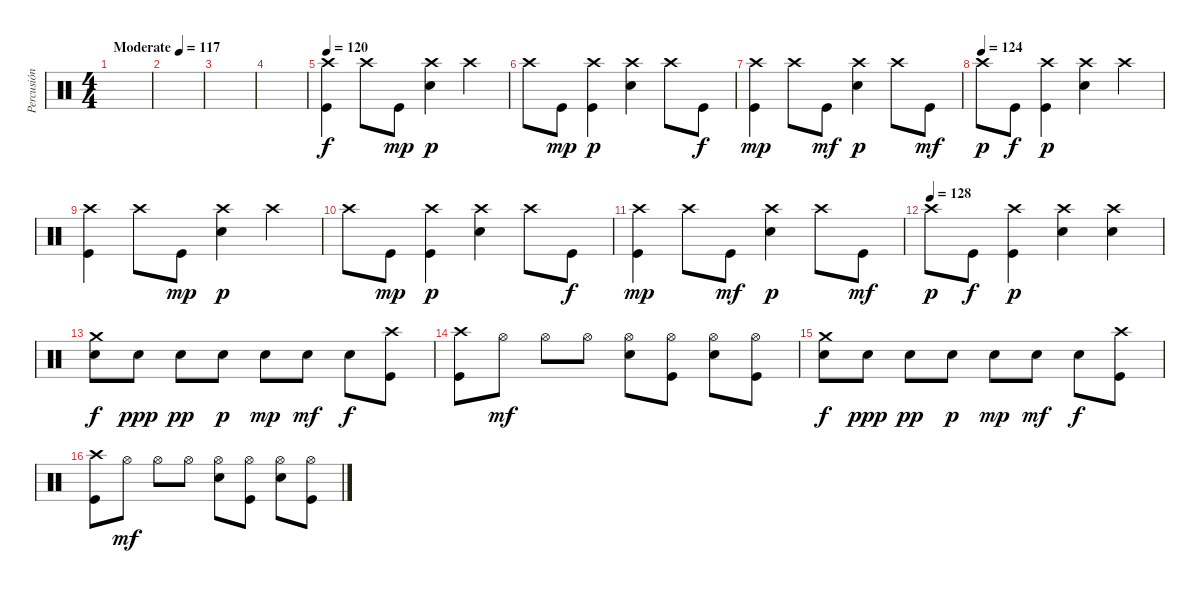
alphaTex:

\track ("Percusión" "Percusión") {instrument percussion}
\staff {score}
\articulation defaults
\ts (4 4)
\tempo (117 "Moderate")
\clef neutral
\ks c
|
|
|
|
\tempo 120
("Kick (hit)" "Crash high (hit)").4 "Crash high (hit)".8 "Kick (hit)".8{dy mp} ("Snare (hit) 2" "Crash high (hit)").4{dy p} "Crash high (hit)".4 |
"Crash high (hit)".8 "Kick (hit)".8{dy mp} ("Kick (hit)" "Crash high (hit)").4{dy p} ("Snare (hit) 2" "Crash high (hit)").4 "Crash high (hit)".8 "Kick (hit)".8{dy f} |
("Kick (hit)" "Crash high (hit)").4{dy mp} "Crash high (hit)".8 "Kick (hit)".8{dy mf} ("Snare (hit) 2" "Crash high (hit)").4{dy p} "Crash high (hit)".8 "Kick (hit)".8{dy mf} |
\tempo (124)
"Crash high (hit)".8{dy p} "Kick (hit)".8{dy f} ("Kick (hit)" "Crash high (hit)").4{dy p} ("Snare (hit) 2" "Crash high (hit)").4 "Crash high (hit)".4 |
("Kick (hit)" "Crash high (hit)").4 "Crash high (hit)".8 "Kick (hit)".8{dy mp} ("Snare (hit) 2" "Crash high (hit)").4{dy p} "Crash high (hit)".4 |
"Crash high (hit)".8 "Kick (hit)".8{dy mp} ("Kick (hit)" "Crash high (hit)").4{dy p} ("Snare (hit) 2" "Crash high (hit)").4 "Crash high (hit)".8 "Kick (hit)".8{dy f} |
("Kick (hit)" "Crash high (hit)").4{dy mp} "Crash high (hit)".8 "Kick (hit)".8{dy mf} ("Snare (hit) 2" "Crash high (hit)").4{dy p} "Crash high (hit)".8 "Kick (hit)".8{dy mf} |
\tempo (128)
"Crash high (hit)".8{dy p} "Kick (hit)".8{dy f} ("Kick (hit)" "Crash high (hit)").4{dy p} ("Snare (hit) 2" "Crash high (hit)").4 ("Snare (hit) 2" "Crash high (hit)").4 |
("Snare (hit) 2" "Crash medium (hit)").8{dy f} "Snare (hit) 2".8{dy ppp} "Snare (hit) 2".8{dy pp} "Snare (hit) 2".8{dy p} "Snare (hit) 2".8{dy mp} "Snare (hit) 2".8{dy mf} "Snare (hit) 2".8{dy f} ("Kick (hit)" "Crash high (hit)").8 |
("Kick (hit)" "Crash high (hit)").8 "Hi-Hat (open)".8{dy mf} "Hi-Hat (open)".8 "Hi-Hat (open)".8 ("Snare (hit) 2" "Hi-Hat (open)").8 ("Kick (hit)" "Hi-Hat (open)").8 ("Snare (hit) 2" "Hi-Hat (open)").8 ("Kick (hit)" "Hi-Hat (open)").8 |
("Snare (hit) 2" "Crash medium (hit)").8{dy f} "Snare (hit) 2".8{dy ppp} "Snare (hit) 2".8{dy pp} "Snare (hit) 2".8{dy p} "Snare (hit) 2".8{dy mp} "Snare (hit) 2".8{dy mf} "Snare (hit) 2".8{dy f} ("Kick (hit)" "Crash high (hit)").8 |
("Kick (hit)" "Crash high (hit)").8 "Hi-Hat (open)".8{dy mf} "Hi-Hat (open)".8 "Hi-Hat (open)".8 ("Snare (hit) 2" "Hi-Hat (open)").8 ("Kick (hit)" "Hi-Hat (open)").8 ("Snare (hit) 2" "Hi-Hat (open)").8 ("Kick (hit)" "Hi-Hat (open)").8
